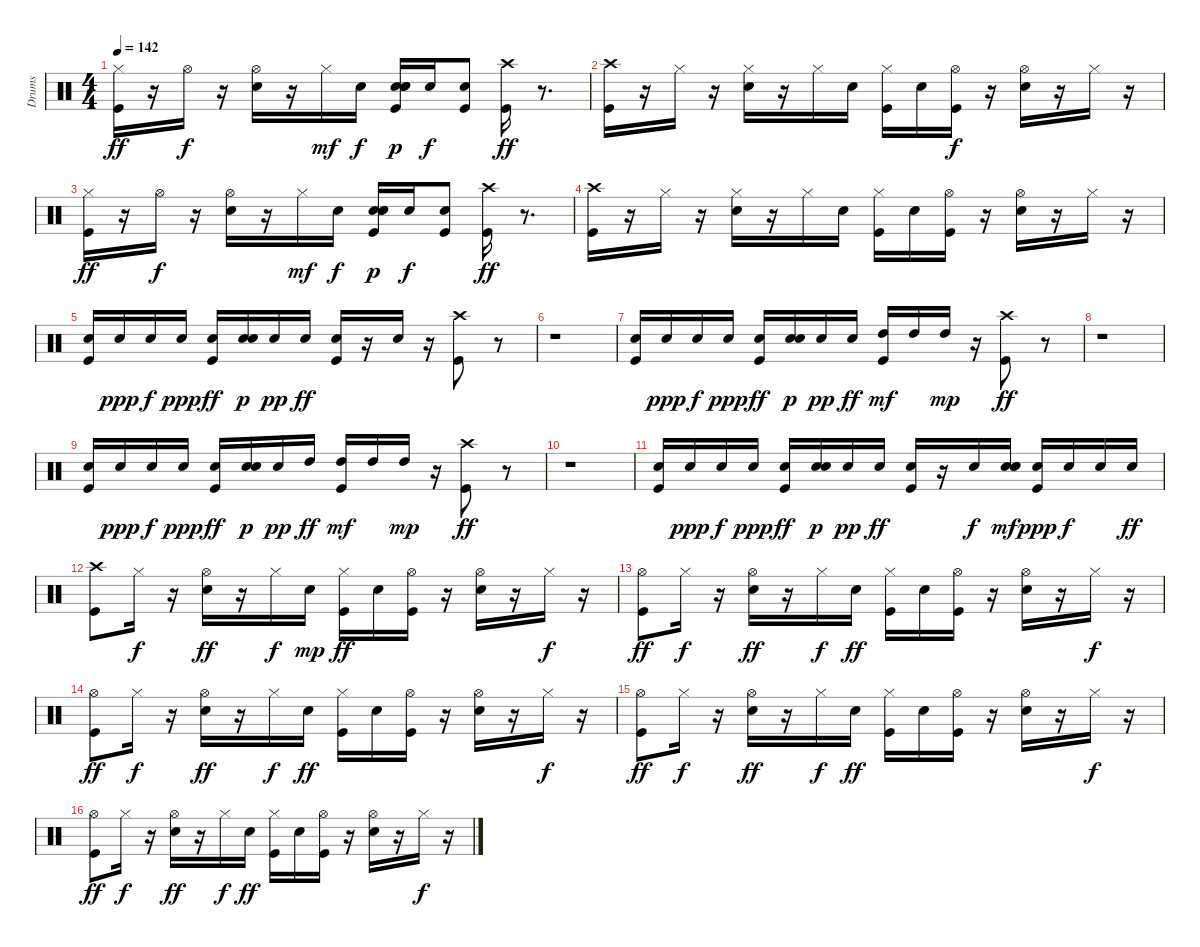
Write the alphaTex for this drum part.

\track ("Drums" "Drums") {instrument percussion}
\staff {score}
\articulation defaults
\ts (4 4)
\tempo 142
\clef neutral
\ks c
("Kick (hit)" "Hi-Hat (closed)").16{dy ff} r.16 "Hi-Hat (open)".16{dy f} r.16 ("Hi-Hat (open)" "Electric Snare (hit)").16 r.16 "Hi-Hat (closed)".16{dy mf} "Electric Snare (hit)".16{dy f} ("Kick (hit)" "Electric Snare (hit)" "Electric Snare (hit)" "Electric Snare (hit)").16{dy p} "Electric Snare (hit)".16{dy f} ("Kick (hit)" "Electric Snare (hit)").8 ("Crash high (hit)" "Kick (hit)").16{dy ff} r.8{d} |
("Crash high (hit)" "Kick (hit)").16 r.16 "Hi-Hat (closed)".16 r.16 ("Hi-Hat (closed)" "Electric Snare (hit)").16 r.16 "Hi-Hat (closed)".16 "Electric Snare (hit)".16 ("Kick (hit)" "Hi-Hat (closed)").16 "Electric Snare (hit)".16 ("Kick (hit)" "Hi-Hat (open)").16{dy f} r.16 ("Electric Snare (hit)" "Hi-Hat (open)").16 r.16 "Hi-Hat (closed)".16 r.16 |
("Kick (hit)" "Hi-Hat (closed)").16{dy ff} r.16 "Hi-Hat (open)".16{dy f} r.16 ("Hi-Hat (open)" "Electric Snare (hit)").16 r.16 "Hi-Hat (closed)".16{dy mf} "Electric Snare (hit)".16{dy f} ("Kick (hit)" "Electric Snare (hit)" "Electric Snare (hit)" "Electric Snare (hit)").16{dy p} "Electric Snare (hit)".16{dy f} ("Kick (hit)" "Electric Snare (hit)").8 ("Crash high (hit)" "Kick (hit)").16{dy ff} r.8{d} |
("Kick (hit)" "Crash high (hit)").16 r.16 "Hi-Hat (closed)".16 r.16 ("Hi-Hat (closed)" "Electric Snare (hit)").16 r.16 "Hi-Hat (closed)".16 "Electric Snare (hit)".16 ("Kick (hit)" "Hi-Hat (closed)").16 "Electric Snare (hit)".16 ("Kick (hit)" "Hi-Hat (open)").16 r.16 ("Electric Snare (hit)" "Hi-Hat (open)").16 r.16 "Hi-Hat (closed)".16 r.16 |
("Electric Snare (hit)" "Kick (hit)").16 "Electric Snare (hit)".16{dy ppp} "Electric Snare (hit)".16{dy f} "Electric Snare (hit)".16{dy ppp} ("Electric Snare (hit)" "Kick (hit)").16{dy ff} ("Electric Snare (hit)" "Electric Snare (hit)").16{dy p} "Electric Snare (hit)".16{dy pp} "Electric Snare (hit)".16{dy ff} ("Kick (hit)" "Electric Snare (hit)").16 r.16 "Electric Snare (hit)".16 r.16 ("Crash high (hit)" "Kick (hit)").8 r.8 |
r.1 |
("Kick (hit)" "Electric Snare (hit)").16 "Electric Snare (hit)".16{dy ppp} "Electric Snare (hit)".16{dy f} "Electric Snare (hit)".16{dy ppp} ("Electric Snare (hit)" "Kick (hit)").16{dy ff} ("Electric Snare (hit)" "Electric Snare (hit)").16{dy p} "Electric Snare (hit)".16{dy pp} "Electric Snare (hit)".16{dy ff} ("Kick (hit)" "High Tom (hit)").16{dy mf} "High Tom (hit)".16 "High Tom (hit)".16{dy mp} r.16 ("Kick (hit)" "Crash high (hit)").8{dy ff} r.8 |
r.1 |
("Kick (hit)" "Electric Snare (hit)").16 "Electric Snare (hit)".16{dy ppp} "Electric Snare (hit)".16{dy f} "Electric Snare (hit)".16{dy ppp} ("Kick (hit)" "Electric Snare (hit)").16{dy ff} ("Electric Snare (hit)" "Electric Snare (hit)").16{dy p} "Electric Snare (hit)".16{dy pp} "High Tom (hit)".16{dy ff} ("Kick (hit)" "High Tom (hit)").16{dy mf} "High Tom (hit)".16 "High Tom (hit)".16{dy mp} r.16 ("Kick (hit)" "Crash high (hit)").8{dy ff} r.8 |
r.1 |
("Kick (hit)" "Electric Snare (hit)").16 "Electric Snare (hit)".16{dy ppp} "Electric Snare (hit)".16{dy f} "Electric Snare (hit)".16{dy ppp} ("Electric Snare (hit)" "Kick (hit)").16{dy ff} ("Electric Snare (hit)" "Electric Snare (hit)").16{dy p} "Electric Snare (hit)".16{dy pp} "Electric Snare (hit)".16{dy ff} ("Electric Snare (hit)" "Kick (hit)").16 r.16 "Electric Snare (hit)".16{dy f} ("Electric Snare (hit)" "Electric Snare (hit)" "Electric Snare (hit)").16{dy mf} ("Kick (hit)" "Electric Snare (hit)").16{dy ppp} "Electric Snare (hit)".16{dy f} "Electric Snare (hit)".16 "Electric Snare (hit)".16{dy ff} |
("Crash high (hit)" "Kick (hit)").8 "Hi-Hat (closed)".16{dy f} r.16 ("Hi-Hat (open)" "Electric Snare (hit)").16{dy ff} r.16 "Hi-Hat (closed)".16{dy f} "Electric Snare (hit)".16{dy mp} ("Kick (hit)" "Hi-Hat (closed)").16{dy ff} "Electric Snare (hit)".16 ("Kick (hit)" "Hi-Hat (open)").16 r.16 ("Hi-Hat (open)" "Electric Snare (hit)").16 r.16 "Hi-Hat (closed)".16{dy f} r.16 |
("Kick (hit)" "Hi-Hat (open)").8{dy ff} "Hi-Hat (closed)".16{dy f} r.16 ("Hi-Hat (open)" "Electric Snare (hit)").16{dy ff} r.16 "Hi-Hat (closed)".16{dy f} "Electric Snare (hit)".16{dy ff} ("Kick (hit)" "Hi-Hat (closed)").16 "Electric Snare (hit)".16 ("Kick (hit)" "Hi-Hat (open)").16 r.16 ("Electric Snare (hit)" "Hi-Hat (open)").16 r.16 "Hi-Hat (closed)".16{dy f} r.16 |
("Kick (hit)" "Hi-Hat (open)").8{dy ff} "Hi-Hat (closed)".16{dy f} r.16 ("Hi-Hat (open)" "Electric Snare (hit)").16{dy ff} r.16 "Hi-Hat (closed)".16{dy f} "Electric Snare (hit)".16{dy ff} ("Kick (hit)" "Hi-Hat (closed)").16 "Electric Snare (hit)".16 ("Kick (hit)" "Hi-Hat (open)").16 r.16 ("Electric Snare (hit)" "Hi-Hat (open)").16 r.16 "Hi-Hat (closed)".16{dy f} r.16 |
("Kick (hit)" "Hi-Hat (open)").8{dy ff} "Hi-Hat (closed)".16{dy f} r.16 ("Hi-Hat (open)" "Electric Snare (hit)").16{dy ff} r.16 "Hi-Hat (closed)".16{dy f} "Electric Snare (hit)".16{dy ff} ("Kick (hit)" "Hi-Hat (closed)").16 "Electric Snare (hit)".16 ("Kick (hit)" "Hi-Hat (open)").16 r.16 ("Electric Snare (hit)" "Hi-Hat (open)").16 r.16 "Hi-Hat (closed)".16{dy f} r.16 |
("Kick (hit)" "Hi-Hat (open)").8{dy ff} "Hi-Hat (closed)".16{dy f} r.16 ("Hi-Hat (open)" "Electric Snare (hit)").16{dy ff} r.16 "Hi-Hat (closed)".16{dy f} "Electric Snare (hit)".16{dy ff} ("Kick (hit)" "Hi-Hat (closed)").16 "Electric Snare (hit)".16 ("Kick (hit)" "Hi-Hat (open)").16 r.16 ("Electric Snare (hit)" "Hi-Hat (open)").16 r.16 "Hi-Hat (closed)".16{dy f} r.16
